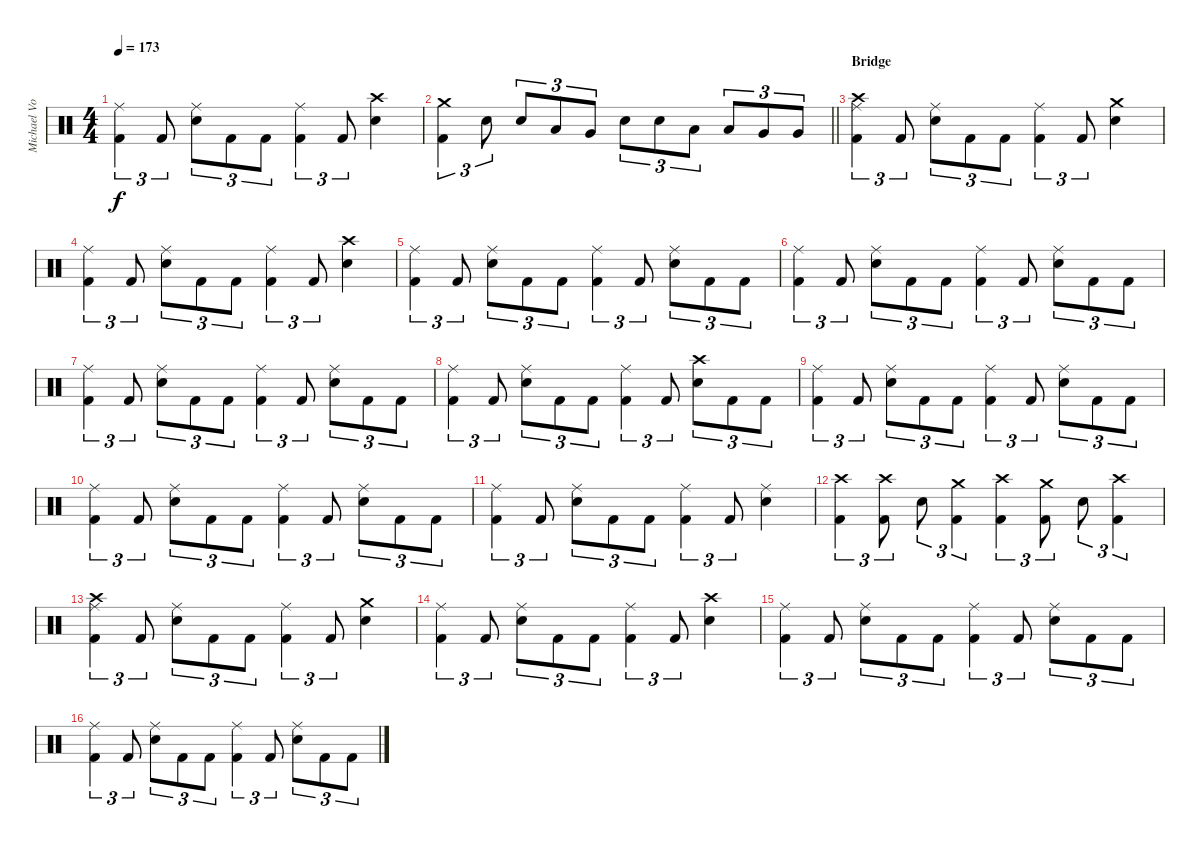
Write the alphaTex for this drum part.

\track ("Michael Von Knorring " "Michael Vo") {instrument percussion}
\staff {score}
\articulation defaults
\ts (4 4)
\tempo 173
\clef neutral
\ks c
("Ride (middle)" "Kick (hit) 2").4{tu (3 2) dy f} "Kick (hit) 2".8{tu (3 2)} ("Ride (middle)" "Snare (hit) 2").8{tu (3 2)} "Kick (hit) 2".8{tu (3 2)} "Kick (hit) 2".8{tu (3 2)} ("Ride (middle)" "Kick (hit) 2").4{tu (3 2)} "Kick (hit) 2".8{tu (3 2)} ("Crash high (hit)" "Snare (hit) 2").4 |
\barLineRight lightlight
("Crash medium (hit)" "Kick (hit) 2").4{tu (3 2)} "Snare (hit) 2".8{tu (3 2)} "Snare (hit) 2".8{tu (3 2)} "Low Tom (hit)".8{tu (3 2)} "Very Low Tom (hit)".8{tu (3 2)} "Snare (hit) 2".8{tu (3 2)} "Snare (hit) 2".8{tu (3 2)} "Low Tom (hit)".8{tu (3 2)} "Low Tom (hit)".8{tu (3 2)} "Very Low Tom (hit)".8{tu (3 2)} "Very Low Tom (hit)".8{tu (3 2)} |
\section ("" "Bridge")
("Crash high (hit)" "Ride (middle)" "Kick (hit) 2").4{tu (3 2)} "Kick (hit) 2".8{tu (3 2)} ("Ride (middle)" "Snare (hit) 2").8{tu (3 2)} "Kick (hit) 2".8{tu (3 2)} "Kick (hit) 2".8{tu (3 2)} ("Ride (middle)" "Kick (hit) 2").4{tu (3 2)} "Kick (hit) 2".8{tu (3 2)} ("Crash medium (hit)" "Snare (hit) 2").4 |
("Ride (middle)" "Kick (hit) 2").4{tu (3 2)} "Kick (hit) 2".8{tu (3 2)} ("Ride (middle)" "Snare (hit) 2").8{tu (3 2)} "Kick (hit) 2".8{tu (3 2)} "Kick (hit) 2".8{tu (3 2)} ("Ride (middle)" "Kick (hit) 2").4{tu (3 2)} "Kick (hit) 2".8{tu (3 2)} ("Crash high (hit)" "Snare (hit) 2").4 |
("Ride (middle)" "Kick (hit) 2").4{tu (3 2)} "Kick (hit) 2".8{tu (3 2)} ("Ride (middle)" "Snare (hit) 2").8{tu (3 2)} "Kick (hit) 2".8{tu (3 2)} "Kick (hit) 2".8{tu (3 2)} ("Ride (middle)" "Kick (hit) 2").4{tu (3 2)} "Kick (hit) 2".8{tu (3 2)} ("Ride (middle)" "Snare (hit) 2").8{tu (3 2)} "Kick (hit) 2".8{tu (3 2)} "Kick (hit) 2".8{tu (3 2)} |
("Ride (middle)" "Kick (hit) 2").4{tu (3 2)} "Kick (hit) 2".8{tu (3 2)} ("Ride (middle)" "Snare (hit) 2").8{tu (3 2)} "Kick (hit) 2".8{tu (3 2)} "Kick (hit) 2".8{tu (3 2)} ("Ride (middle)" "Kick (hit) 2").4{tu (3 2)} "Kick (hit) 2".8{tu (3 2)} ("Ride (middle)" "Snare (hit) 2").8{tu (3 2)} "Kick (hit) 2".8{tu (3 2)} "Kick (hit) 2".8{tu (3 2)} |
("Ride (middle)" "Kick (hit) 2").4{tu (3 2)} "Kick (hit) 2".8{tu (3 2)} ("Ride (middle)" "Snare (hit) 2").8{tu (3 2)} "Kick (hit) 2".8{tu (3 2)} "Kick (hit) 2".8{tu (3 2)} ("Ride (middle)" "Kick (hit) 2").4{tu (3 2)} "Kick (hit) 2".8{tu (3 2)} ("Ride (middle)" "Snare (hit) 2").8{tu (3 2)} "Kick (hit) 2".8{tu (3 2)} "Kick (hit) 2".8{tu (3 2)} |
("Ride (middle)" "Kick (hit) 2").4{tu (3 2)} "Kick (hit) 2".8{tu (3 2)} ("Ride (middle)" "Snare (hit) 2").8{tu (3 2)} "Kick (hit) 2".8{tu (3 2)} "Kick (hit) 2".8{tu (3 2)} ("Ride (middle)" "Kick (hit) 2").4{tu (3 2)} "Kick (hit) 2".8{tu (3 2)} ("Crash high (hit)" "Snare (hit) 2").8{tu (3 2)} "Kick (hit) 2".8{tu (3 2)} "Kick (hit) 2".8{tu (3 2)} |
("Ride (middle)" "Kick (hit) 2").4{tu (3 2)} "Kick (hit) 2".8{tu (3 2)} ("Ride (middle)" "Snare (hit) 2").8{tu (3 2)} "Kick (hit) 2".8{tu (3 2)} "Kick (hit) 2".8{tu (3 2)} ("Ride (middle)" "Kick (hit) 2").4{tu (3 2)} "Kick (hit) 2".8{tu (3 2)} ("Ride (middle)" "Snare (hit) 2").8{tu (3 2)} "Kick (hit) 2".8{tu (3 2)} "Kick (hit) 2".8{tu (3 2)} |
("Ride (middle)" "Kick (hit) 2").4{tu (3 2)} "Kick (hit) 2".8{tu (3 2)} ("Ride (middle)" "Snare (hit) 2").8{tu (3 2)} "Kick (hit) 2".8{tu (3 2)} "Kick (hit) 2".8{tu (3 2)} ("Ride (middle)" "Kick (hit) 2").4{tu (3 2)} "Kick (hit) 2".8{tu (3 2)} ("Ride (middle)" "Snare (hit) 2").8{tu (3 2)} "Kick (hit) 2".8{tu (3 2)} "Kick (hit) 2".8{tu (3 2)} |
("Ride (middle)" "Kick (hit) 2").4{tu (3 2)} "Kick (hit) 2".8{tu (3 2)} ("Ride (middle)" "Snare (hit) 2").8{tu (3 2)} "Kick (hit) 2".8{tu (3 2)} "Kick (hit) 2".8{tu (3 2)} ("Ride (middle)" "Kick (hit) 2").4{tu (3 2)} "Kick (hit) 2".8{tu (3 2)} ("Ride (middle)" "Snare (hit) 2").4 |
("Crash high (hit)" "Kick (hit) 2").4{tu (3 2)} ("Crash high (hit)" "Kick (hit) 2").8{tu (3 2)} "Snare (hit) 2".8{tu (3 2)} ("Crash medium (hit)" "Kick (hit) 2").4{tu (3 2)} ("Crash high (hit)" "Kick (hit) 2").4{tu (3 2)} ("Crash medium (hit)" "Kick (hit) 2").8{tu (3 2)} "Snare (hit) 2".8{tu (3 2)} ("Crash high (hit)" "Kick (hit) 2").4{tu (3 2)} |
("Crash high (hit)" "Ride (middle)" "Kick (hit) 2").4{tu (3 2)} "Kick (hit) 2".8{tu (3 2)} ("Ride (middle)" "Snare (hit) 2").8{tu (3 2)} "Kick (hit) 2".8{tu (3 2)} "Kick (hit) 2".8{tu (3 2)} ("Ride (middle)" "Kick (hit) 2").4{tu (3 2)} "Kick (hit) 2".8{tu (3 2)} ("Crash medium (hit)" "Snare (hit) 2").4 |
("Ride (middle)" "Kick (hit) 2").4{tu (3 2)} "Kick (hit) 2".8{tu (3 2)} ("Ride (middle)" "Snare (hit) 2").8{tu (3 2)} "Kick (hit) 2".8{tu (3 2)} "Kick (hit) 2".8{tu (3 2)} ("Ride (middle)" "Kick (hit) 2").4{tu (3 2)} "Kick (hit) 2".8{tu (3 2)} ("Crash high (hit)" "Snare (hit) 2").4 |
("Ride (middle)" "Kick (hit) 2").4{tu (3 2)} "Kick (hit) 2".8{tu (3 2)} ("Ride (middle)" "Snare (hit) 2").8{tu (3 2)} "Kick (hit) 2".8{tu (3 2)} "Kick (hit) 2".8{tu (3 2)} ("Ride (middle)" "Kick (hit) 2").4{tu (3 2)} "Kick (hit) 2".8{tu (3 2)} ("Ride (middle)" "Snare (hit) 2").8{tu (3 2)} "Kick (hit) 2".8{tu (3 2)} "Kick (hit) 2".8{tu (3 2)} |
("Ride (middle)" "Kick (hit) 2").4{tu (3 2)} "Kick (hit) 2".8{tu (3 2)} ("Ride (middle)" "Snare (hit) 2").8{tu (3 2)} "Kick (hit) 2".8{tu (3 2)} "Kick (hit) 2".8{tu (3 2)} ("Ride (middle)" "Kick (hit) 2").4{tu (3 2)} "Kick (hit) 2".8{tu (3 2)} ("Ride (middle)" "Snare (hit) 2").8{tu (3 2)} "Kick (hit) 2".8{tu (3 2)} "Kick (hit) 2".8{tu (3 2)}
